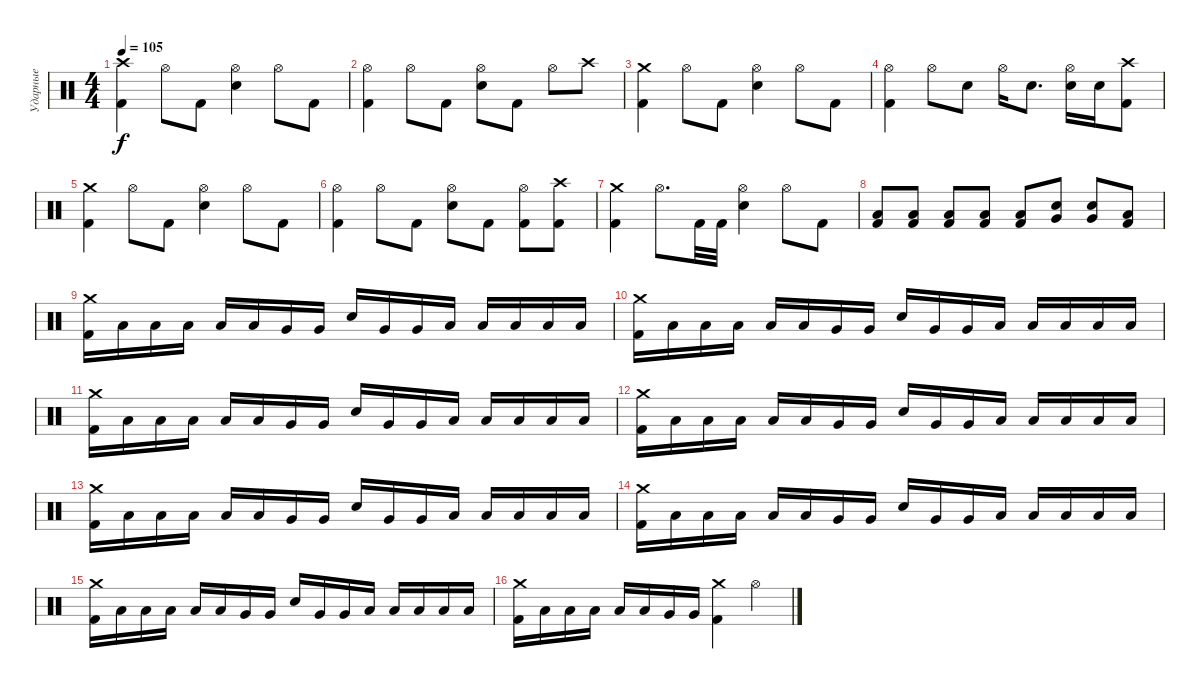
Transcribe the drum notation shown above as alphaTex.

\track ("Ударные" "Ударные") {instrument percussion}
\staff {score}
\articulation defaults
\ts (4 4)
\tempo 105
\clef neutral
\ks c
("Crash high (hit)" "Kick (hit) 2").4{dy f} "Hi-Hat (open)".8 "Kick (hit) 2".8 ("Hi-Hat (open)" "Electric Snare (hit)").4 "Hi-Hat (open)".8 "Kick (hit) 2".8 |
("Hi-Hat (open)" "Kick (hit) 2").4 "Hi-Hat (open)".8 "Kick (hit) 2".8 ("Hi-Hat (open)" "Electric Snare (hit)").8 "Kick (hit) 2".8 "Hi-Hat (open)".8 "Crash high (hit)".8 |
("Crash medium (hit)" "Kick (hit) 2").4 "Hi-Hat (open)".8 "Kick (hit) 2".8 ("Hi-Hat (open)" "Electric Snare (hit)").4 "Hi-Hat (open)".8 "Kick (hit) 2".8 |
("Hi-Hat (open)" "Kick (hit) 2").4 "Hi-Hat (open)".8 "Electric Snare (hit)".8 "Hi-Hat (open)".16 "Electric Snare (hit)".8{d} ("Hi-Hat (open)" "Electric Snare (hit)").16 "Electric Snare (hit)".16 ("Crash high (hit)" "Kick (hit) 2").8 |
("Crash medium (hit)" "Kick (hit) 2").4 "Hi-Hat (open)".8 "Kick (hit) 2".8 ("Hi-Hat (open)" "Electric Snare (hit)").4 "Hi-Hat (open)".8 "Kick (hit) 2".8 |
("Hi-Hat (open)" "Kick (hit) 2").4 "Hi-Hat (open)".8 "Kick (hit) 2".8 ("Hi-Hat (open)" "Electric Snare (hit)").8 "Kick (hit) 2".8 ("Hi-Hat (open)" "Kick (hit) 2").8 ("Crash high (hit)" "Kick (hit) 2").8 |
("Crash medium (hit)" "Kick (hit) 2").4 "Hi-Hat (open)".8{d} "Kick (hit) 2".32 "Kick (hit) 2".32 ("Hi-Hat (open)" "Electric Snare (hit)").4 "Hi-Hat (open)".8 "Kick (hit) 2".8 |
("Low Tom (hit)" "Kick (hit) 2").8 ("Low Tom (hit)" "Kick (hit) 2").8 ("Low Tom (hit)" "Kick (hit) 2").8 ("Low Tom (hit)" "Kick (hit) 2").8 ("Low Tom (hit)" "Kick (hit) 2").8 ("Electric Snare (hit)" "Very Low Tom (hit)").8 ("Electric Snare (hit)" "Very Low Tom (hit)").8 ("Low Tom (hit)" "Kick (hit) 2").8 |
("Crash medium (hit)" "Kick (hit) 2").16 "Low Tom (hit)".16 "Low Tom (hit)".16 "Low Tom (hit)".16 "Low Tom (hit)".16 "Low Tom (hit)".16 "Very Low Tom (hit)".16 "Very Low Tom (hit)".16 "Electric Snare (hit)".16 "Very Low Tom (hit)".16 "Very Low Tom (hit)".16 "Low Tom (hit)".16 "Low Tom (hit)".16 "Low Tom (hit)".16 "Low Tom (hit)".16 "Low Tom (hit)".16 |
("Crash medium (hit)" "Kick (hit) 2").16 "Low Tom (hit)".16 "Low Tom (hit)".16 "Low Tom (hit)".16 "Low Tom (hit)".16 "Low Tom (hit)".16 "Very Low Tom (hit)".16 "Very Low Tom (hit)".16 "Electric Snare (hit)".16 "Very Low Tom (hit)".16 "Very Low Tom (hit)".16 "Low Tom (hit)".16 "Low Tom (hit)".16 "Low Tom (hit)".16 "Low Tom (hit)".16 "Low Tom (hit)".16 |
("Crash medium (hit)" "Kick (hit) 2").16 "Low Tom (hit)".16 "Low Tom (hit)".16 "Low Tom (hit)".16 "Low Tom (hit)".16 "Low Tom (hit)".16 "Very Low Tom (hit)".16 "Very Low Tom (hit)".16 "Electric Snare (hit)".16 "Very Low Tom (hit)".16 "Very Low Tom (hit)".16 "Low Tom (hit)".16 "Low Tom (hit)".16 "Low Tom (hit)".16 "Low Tom (hit)".16 "Low Tom (hit)".16 |
("Crash medium (hit)" "Kick (hit) 2").16 "Low Tom (hit)".16 "Low Tom (hit)".16 "Low Tom (hit)".16 "Low Tom (hit)".16 "Low Tom (hit)".16 "Very Low Tom (hit)".16 "Very Low Tom (hit)".16 "Electric Snare (hit)".16 "Very Low Tom (hit)".16 "Very Low Tom (hit)".16 "Low Tom (hit)".16 "Low Tom (hit)".16 "Low Tom (hit)".16 "Low Tom (hit)".16 "Low Tom (hit)".16 |
("Crash medium (hit)" "Kick (hit) 2").16 "Low Tom (hit)".16 "Low Tom (hit)".16 "Low Tom (hit)".16 "Low Tom (hit)".16 "Low Tom (hit)".16 "Very Low Tom (hit)".16 "Very Low Tom (hit)".16 "Electric Snare (hit)".16 "Very Low Tom (hit)".16 "Very Low Tom (hit)".16 "Low Tom (hit)".16 "Low Tom (hit)".16 "Low Tom (hit)".16 "Low Tom (hit)".16 "Low Tom (hit)".16 |
("Crash medium (hit)" "Kick (hit) 2").16 "Low Tom (hit)".16 "Low Tom (hit)".16 "Low Tom (hit)".16 "Low Tom (hit)".16 "Low Tom (hit)".16 "Very Low Tom (hit)".16 "Very Low Tom (hit)".16 "Electric Snare (hit)".16 "Very Low Tom (hit)".16 "Very Low Tom (hit)".16 "Low Tom (hit)".16 "Low Tom (hit)".16 "Low Tom (hit)".16 "Low Tom (hit)".16 "Low Tom (hit)".16 |
("Crash medium (hit)" "Kick (hit) 2").16 "Low Tom (hit)".16 "Low Tom (hit)".16 "Low Tom (hit)".16 "Low Tom (hit)".16 "Low Tom (hit)".16 "Very Low Tom (hit)".16 "Very Low Tom (hit)".16 "Electric Snare (hit)".16 "Very Low Tom (hit)".16 "Very Low Tom (hit)".16 "Low Tom (hit)".16 "Low Tom (hit)".16 "Low Tom (hit)".16 "Low Tom (hit)".16 "Low Tom (hit)".16 |
("Crash medium (hit)" "Kick (hit) 2").16 "Low Tom (hit)".16 "Low Tom (hit)".16 "Low Tom (hit)".16 "Low Tom (hit)".16 "Low Tom (hit)".16 "Very Low Tom (hit)".16 "Very Low Tom (hit)".16 ("Crash medium (hit)" "Kick (hit) 2").4 "Hi-Hat (open)".4
